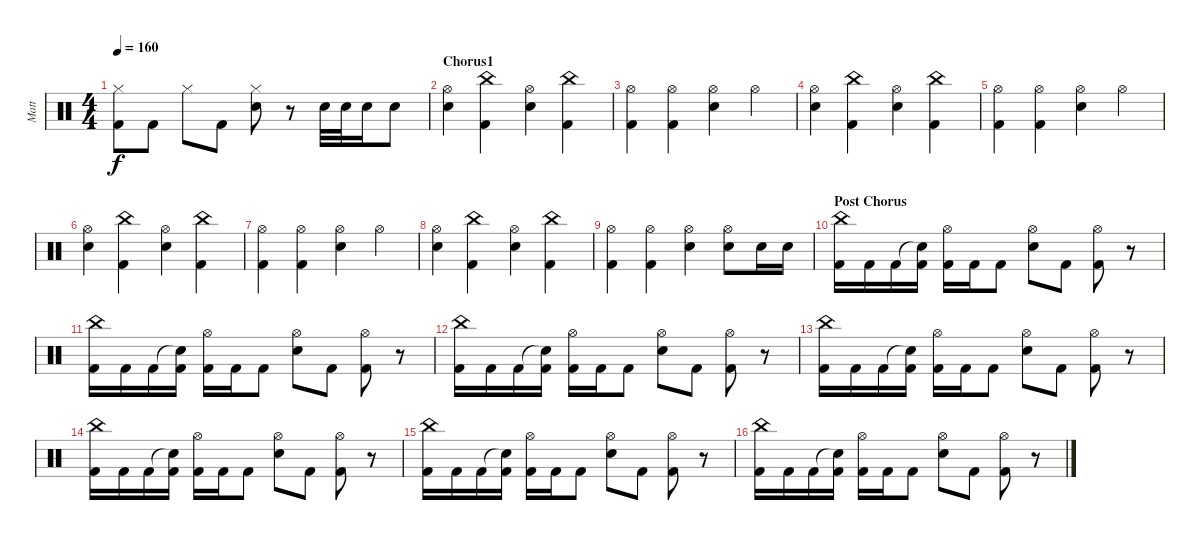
\track ("Matt" "Matt") {instrument percussion}
\staff {score}
\articulation defaults
\ts (4 4)
\tempo 160
\clef neutral
\ks c
("Kick (hit) 2" "Hi-Hat (closed)").8{dy f} "Kick (hit) 2".8 "Hi-Hat (closed)".8 "Kick (hit) 2".8 ("Electric Snare (hit)" "Hi-Hat (closed)").8 r.8 "Electric Snare (hit)".32 "Electric Snare (hit)".32 "Electric Snare (hit)".16 "Electric Snare (hit)".8 |
\section ("" "Chorus1")
("Electric Snare (hit)" "Hi-Hat (open)").4 ("China (hit)" "Kick (hit) 2").4 ("Electric Snare (hit)" "Hi-Hat (open)").4 ("China (hit)" "Kick (hit) 2").4 |
("Kick (hit) 2" "Hi-Hat (open)").4 ("Kick (hit) 2" "Hi-Hat (open)").4 ("Electric Snare (hit)" "Hi-Hat (open)").4 "Hi-Hat (open)".4 |
("Electric Snare (hit)" "Hi-Hat (open)").4 ("China (hit)" "Kick (hit) 2").4 ("Electric Snare (hit)" "Hi-Hat (open)").4 ("China (hit)" "Kick (hit) 2").4 |
("Kick (hit) 2" "Hi-Hat (open)").4 ("Kick (hit) 2" "Hi-Hat (open)").4 ("Electric Snare (hit)" "Hi-Hat (open)").4 "Hi-Hat (open)".4 |
("Electric Snare (hit)" "Hi-Hat (open)").4 ("China (hit)" "Kick (hit) 2").4 ("Electric Snare (hit)" "Hi-Hat (open)").4 ("China (hit)" "Kick (hit) 2").4 |
("Kick (hit) 2" "Hi-Hat (open)").4 ("Kick (hit) 2" "Hi-Hat (open)").4 ("Electric Snare (hit)" "Hi-Hat (open)").4 "Hi-Hat (open)".4 |
("Electric Snare (hit)" "Hi-Hat (open)").4 ("China (hit)" "Kick (hit) 2").4 ("Electric Snare (hit)" "Hi-Hat (open)").4 ("China (hit)" "Kick (hit) 2").4 |
("Kick (hit) 2" "Hi-Hat (open)").4 ("Kick (hit) 2" "Hi-Hat (open)").4 ("Electric Snare (hit)" "Hi-Hat (open)").4 ("Hi-Hat (open)" "Electric Snare (hit)").8 "Electric Snare (hit)".16 "Electric Snare (hit)".16 |
\section ("" "Post Chorus")
("China (hit)" "Kick (hit) 2").16 "Kick (hit) 2".16 "Kick (hit) 2".16 ("Snare (hit)"{t} "Kick (hit) 2").16 ("Hi-Hat (open)" "Kick (hit) 2").16 "Kick (hit) 2".16 "Kick (hit) 2".8 ("Hi-Hat (open)" "Electric Snare (hit)").8 "Kick (hit) 2".8 ("Hi-Hat (open)" "Kick (hit) 2").8 r.8 |
("China (hit)" "Kick (hit) 2").16 "Kick (hit) 2".16 "Kick (hit) 2".16 ("Snare (hit)"{t} "Kick (hit) 2").16 ("Hi-Hat (open)" "Kick (hit) 2").16 "Kick (hit) 2".16 "Kick (hit) 2".8 ("Hi-Hat (open)" "Electric Snare (hit)").8 "Kick (hit) 2".8 ("Hi-Hat (open)" "Kick (hit) 2").8 r.8 |
("China (hit)" "Kick (hit) 2").16 "Kick (hit) 2".16 "Kick (hit) 2".16 ("Snare (hit)"{t} "Kick (hit) 2").16 ("Hi-Hat (open)" "Kick (hit) 2").16 "Kick (hit) 2".16 "Kick (hit) 2".8 ("Hi-Hat (open)" "Electric Snare (hit)").8 "Kick (hit) 2".8 ("Hi-Hat (open)" "Kick (hit) 2").8 r.8 |
("China (hit)" "Kick (hit) 2").16 "Kick (hit) 2".16 "Kick (hit) 2".16 ("Snare (hit)"{t} "Kick (hit) 2").16 ("Hi-Hat (open)" "Kick (hit) 2").16 "Kick (hit) 2".16 "Kick (hit) 2".8 ("Hi-Hat (open)" "Electric Snare (hit)").8 "Kick (hit) 2".8 ("Hi-Hat (open)" "Kick (hit) 2").8 r.8 |
("China (hit)" "Kick (hit) 2").16 "Kick (hit) 2".16 "Kick (hit) 2".16 ("Snare (hit)"{t} "Kick (hit) 2").16 ("Hi-Hat (open)" "Kick (hit) 2").16 "Kick (hit) 2".16 "Kick (hit) 2".8 ("Hi-Hat (open)" "Electric Snare (hit)").8 "Kick (hit) 2".8 ("Hi-Hat (open)" "Kick (hit) 2").8 r.8 |
("China (hit)" "Kick (hit) 2").16 "Kick (hit) 2".16 "Kick (hit) 2".16 ("Snare (hit)"{t} "Kick (hit) 2").16 ("Hi-Hat (open)" "Kick (hit) 2").16 "Kick (hit) 2".16 "Kick (hit) 2".8 ("Hi-Hat (open)" "Electric Snare (hit)").8 "Kick (hit) 2".8 ("Hi-Hat (open)" "Kick (hit) 2").8 r.8 |
("China (hit)" "Kick (hit) 2").16 "Kick (hit) 2".16 "Kick (hit) 2".16 ("Snare (hit)"{t} "Kick (hit) 2").16 ("Hi-Hat (open)" "Kick (hit) 2").16 "Kick (hit) 2".16 "Kick (hit) 2".8 ("Hi-Hat (open)" "Electric Snare (hit)").8 "Kick (hit) 2".8 ("Hi-Hat (open)" "Kick (hit) 2").8 r.8
